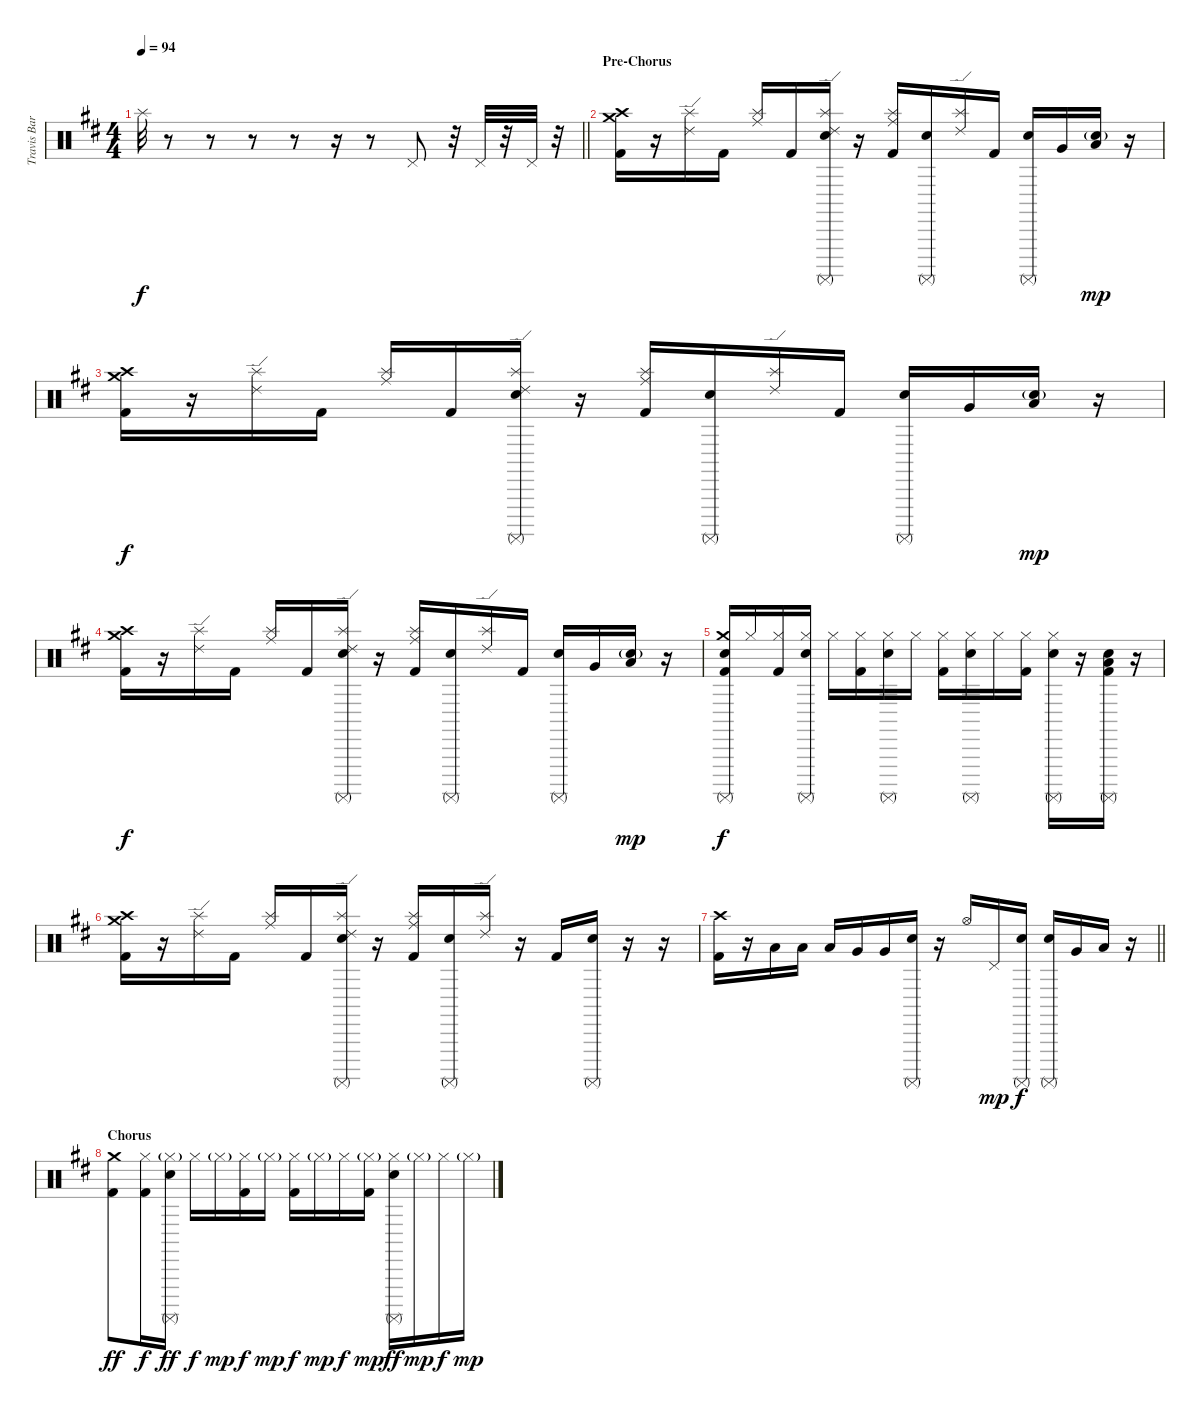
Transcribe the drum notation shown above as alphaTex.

\track ("Travis Barker" "Travis Bar") {instrument percussion}
\staff {score}
\articulation defaults
\ts (4 4)
\tempo 94
\clef neutral
\barLineRight lightlight
\ks d "Splash (hit)".32{dy f}
r.8 r.8 r.8 r.8 r.16 r.8 "Pedal Hi-Hat (hit)".8 r.32 "Pedal Hi-Hat (hit)".32 r.32 "Pedal Hi-Hat (hit)".32 r.32 |
\section ("" "Pre-Chorus")
("Crash medium (hit)" "Crash high (hit)" "Kick (hit) 2").16 r.16 ("Ride (edge) 2" "Splash (hit)").16 "Kick (hit) 2".16 ("Ride (middle)" "Splash (hit)").16 "Kick (hit) 2".16 ("Ride (edge) 2" "Splash (hit)" "Electric Snare (hit)" "Surdo (mute)").16 r.16 ("Ride (middle)" "Splash (hit)" "Kick (hit) 2").16 ("Electric Snare (hit)" "Surdo (mute)").16 ("Ride (edge) 2" "Splash (hit)").16 "Kick (hit) 2".16 ("Electric Snare (hit)" "Surdo (mute)").16 "Very Low Tom (hit)".16 ("Low Floor Tom (hit)" "Electric Snare (hit)"{g}).16{dy mp} r.16 |
("Crash medium (hit)" "Crash high (hit)" "Kick (hit) 2").16{dy f} r.16 ("Ride (edge) 2" "Splash (hit)").16 "Kick (hit) 2".16 ("Ride (middle)" "Splash (hit)").16 "Kick (hit) 2".16 ("Ride (edge) 2" "Splash (hit)" "Electric Snare (hit)" "Surdo (mute)").16 r.16 ("Ride (middle)" "Splash (hit)" "Kick (hit) 2").16 ("Electric Snare (hit)" "Surdo (mute)").16 ("Ride (edge) 2" "Splash (hit)").16 "Kick (hit) 2".16 ("Electric Snare (hit)" "Surdo (mute)").16 "Very Low Tom (hit)".16 ("Low Floor Tom (hit)" "Electric Snare (hit)"{g}).16{dy mp} r.16 |
("Crash medium (hit)" "Crash high (hit)" "Kick (hit) 2").16{dy f} r.16 ("Ride (edge) 2" "Splash (hit)").16 "Kick (hit) 2".16 ("Ride (middle)" "Splash (hit)").16 "Kick (hit) 2".16 ("Ride (edge) 2" "Splash (hit)" "Electric Snare (hit)" "Surdo (mute)").16 r.16 ("Ride (middle)" "Splash (hit)" "Kick (hit) 2").16 ("Electric Snare (hit)" "Surdo (mute)").16 ("Ride (edge) 2" "Splash (hit)").16 "Kick (hit) 2".16 ("Electric Snare (hit)" "Surdo (mute)").16 "Very Low Tom (hit)".16 ("Low Floor Tom (hit)" "Electric Snare (hit)"{g}).16{dy mp} r.16 |
("Crash medium (hit)" "Surdo (mute)" "Electric Snare (hit)" "Kick (hit) 2").16{dy f} "Hi-Hat (closed)".16 ("Hi-Hat (closed)" "Kick (hit) 2").16 ("Hi-Hat (closed)" "Electric Snare (hit)" "Surdo (mute)").16 "Hi-Hat (closed)".16 ("Hi-Hat (closed)" "Kick (hit) 2").16 ("Hi-Hat (closed)" "Electric Snare (hit)" "Surdo (mute)").16 "Hi-Hat (closed)".16 ("Hi-Hat (closed)" "Kick (hit) 2").16 ("Hi-Hat (closed)" "Electric Snare (hit)" "Surdo (mute)").16 "Hi-Hat (closed)".16 ("Hi-Hat (closed)" "Kick (hit) 2").16 ("Hi-Hat (closed)" "Electric Snare (hit)" "Surdo (mute)").16 r.16 ("Surdo (mute)" "Low Floor Tom (hit)" "Electric Snare (hit)" "Kick (hit) 2").16 r.16 |
("Crash medium (hit)" "Crash high (hit)" "Kick (hit) 2").16 r.16 ("Ride (edge) 2" "Splash (hit)").16 "Kick (hit) 2".16 ("Ride (middle)" "Splash (hit)").16 "Kick (hit) 2".16 ("Ride (edge) 2" "Splash (hit)" "Electric Snare (hit)" "Surdo (mute)").16 r.16 ("Ride (middle)" "Splash (hit)" "Kick (hit) 2").16 ("Electric Snare (hit)" "Surdo (mute)").16 ("Ride (edge) 2" "Splash (hit)").16 r.16 "Kick (hit) 2".16 ("Electric Snare (hit)" "Surdo (mute)").16 r.16 r.16 |
\barLineRight lightlight
("Crash high (hit)" "Kick (hit) 2").16 r.16 "Low Floor Tom (hit)".16 "Low Floor Tom (hit)".16 "Low Floor Tom (hit)".16 "Very Low Tom (hit)".16 "Very Low Tom (hit)".16 ("Electric Snare (hit)" "Surdo (mute)").16 r.16 "Hi-Hat (open)".16 "Pedal Hi-Hat (hit)".16{dy mp} ("Electric Snare (hit)" "Surdo (mute)").16{dy f} ("Electric Snare (hit)" "Surdo (mute)").16 "Very Low Tom (hit)".16 "Low Floor Tom (hit)".16 r.16 |
\section ("" "Chorus")
("Crash medium (hit)" "Kick (hit) 2").8{dy ff} ("Hi-Hat (closed)" "Kick (hit) 2").16{dy f} ("Hi-Hat (closed)"{g} "Electric Snare (hit)" "Surdo (mute)").16{dy ff} "Hi-Hat (closed)".16{dy f} "Hi-Hat (closed)"{g}.16{dy mp} ("Hi-Hat (closed)" "Kick (hit) 2").16{dy f} "Hi-Hat (closed)"{g}.16{dy mp} ("Hi-Hat (closed)" "Kick (hit) 2").16{dy f} "Hi-Hat (closed)"{g}.16{dy mp} "Hi-Hat (closed)".16{dy f} ("Hi-Hat (closed)"{g} "Kick (hit) 2").16{dy mp} ("Hi-Hat (closed)" "Electric Snare (hit)" "Surdo (mute)").16{dy ff} "Hi-Hat (closed)"{g}.16{dy mp} "Hi-Hat (closed)".16{dy f} "Hi-Hat (closed)"{g}.16{dy mp}
